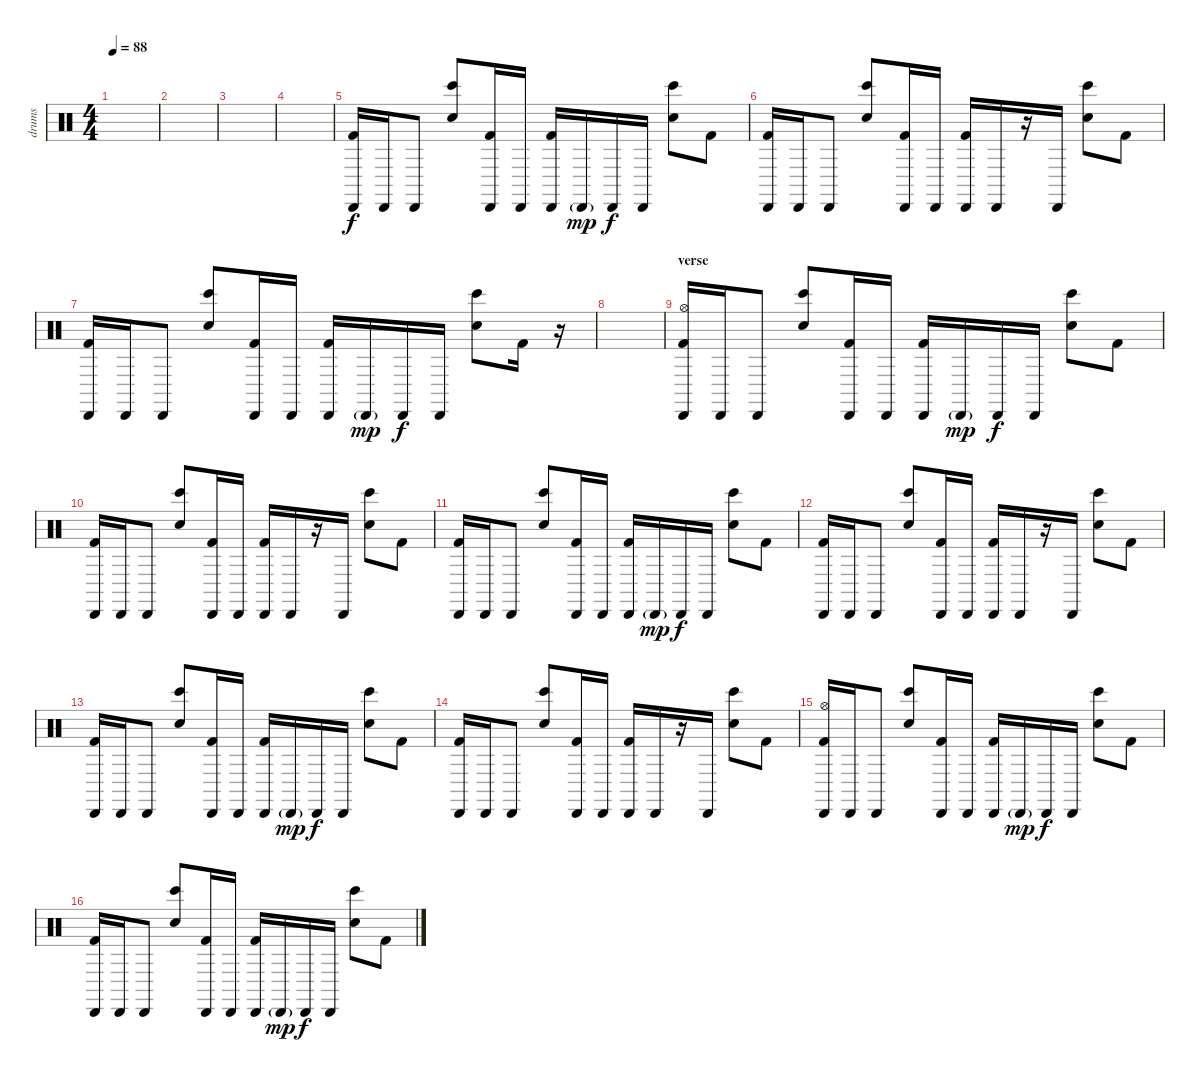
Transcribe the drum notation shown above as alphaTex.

\track ("drums" "drums") {instrument percussion}
\staff {score}
\articulation defaults
\ts (4 4)
\tempo 88
\clef neutral
\ks c
|
|
|
|
("Cabasa (hit)" "Kick (hit) 2").16 "Cabasa (hit)".16 "Cabasa (hit)".8 ("Hand Clap (hit)" "Bongo High (hit)").8 ("Cabasa (hit)" "Kick (hit) 2").16 "Cabasa (hit)".16 ("Cabasa (hit)" "Kick (hit) 2").16 "Cabasa (hit)"{g}.16{dy mp} "Cabasa (hit)".16{dy f} "Cabasa (hit)".16 ("Hand Clap (hit)" "Bongo High (hit)").8 "Kick (hit) 2".8 |
("Cabasa (hit)" "Kick (hit) 2").16 "Cabasa (hit)".16 "Cabasa (hit)".8 ("Bongo High (hit)" "Hand Clap (hit)").8 ("Cabasa (hit)" "Kick (hit) 2").16 "Cabasa (hit)".16 ("Cabasa (hit)" "Kick (hit) 2").16 "Cabasa (hit)".16 r.16 "Cabasa (hit)".16 ("Bongo High (hit)" "Hand Clap (hit)").8 "Kick (hit) 2".8 |
("Cabasa (hit)" "Kick (hit) 2").16 "Cabasa (hit)".16 "Cabasa (hit)".8 ("Bongo High (hit)" "Hand Clap (hit)").8 ("Cabasa (hit)" "Kick (hit) 2").16 "Cabasa (hit)".16 ("Cabasa (hit)" "Kick (hit) 2").16 "Cabasa (hit)"{g}.16{dy mp} "Cabasa (hit)".16{dy f} "Cabasa (hit)".16 ("Bongo High (hit)" "Hand Clap (hit)").8 "Kick (hit) 2".16 r.16 |
|
\section ("" "verse")
("Cabasa (hit)" "Kick (hit) 2" "Hi-Hat (open)").16 "Cabasa (hit)".16 "Cabasa (hit)".8 ("Hand Clap (hit)" "Bongo High (hit)").8 ("Cabasa (hit)" "Kick (hit) 2").16 "Cabasa (hit)".16 ("Cabasa (hit)" "Kick (hit) 2").16 "Cabasa (hit)"{g}.16{dy mp} "Cabasa (hit)".16{dy f} "Cabasa (hit)".16 ("Hand Clap (hit)" "Bongo High (hit)").8 "Kick (hit) 2".8 |
("Cabasa (hit)" "Kick (hit) 2").16 "Cabasa (hit)".16 "Cabasa (hit)".8 ("Bongo High (hit)" "Hand Clap (hit)").8 ("Cabasa (hit)" "Kick (hit) 2").16 "Cabasa (hit)".16 ("Cabasa (hit)" "Kick (hit) 2").16 "Cabasa (hit)".16 r.16 "Cabasa (hit)".16 ("Bongo High (hit)" "Hand Clap (hit)").8 "Kick (hit) 2".8 |
("Cabasa (hit)" "Kick (hit) 2").16 "Cabasa (hit)".16 "Cabasa (hit)".8 ("Hand Clap (hit)" "Bongo High (hit)").8 ("Cabasa (hit)" "Kick (hit) 2").16 "Cabasa (hit)".16 ("Cabasa (hit)" "Kick (hit) 2").16 "Cabasa (hit)"{g}.16{dy mp} "Cabasa (hit)".16{dy f} "Cabasa (hit)".16 ("Hand Clap (hit)" "Bongo High (hit)").8 "Kick (hit) 2".8 |
("Cabasa (hit)" "Kick (hit) 2").16 "Cabasa (hit)".16 "Cabasa (hit)".8 ("Bongo High (hit)" "Hand Clap (hit)").8 ("Cabasa (hit)" "Kick (hit) 2").16 "Cabasa (hit)".16 ("Cabasa (hit)" "Kick (hit) 2").16 "Cabasa (hit)".16 r.16 "Cabasa (hit)".16 ("Bongo High (hit)" "Hand Clap (hit)").8 "Kick (hit) 2".8 |
("Cabasa (hit)" "Kick (hit) 2").16 "Cabasa (hit)".16 "Cabasa (hit)".8 ("Hand Clap (hit)" "Bongo High (hit)").8 ("Cabasa (hit)" "Kick (hit) 2").16 "Cabasa (hit)".16 ("Cabasa (hit)" "Kick (hit) 2").16 "Cabasa (hit)"{g}.16{dy mp} "Cabasa (hit)".16{dy f} "Cabasa (hit)".16 ("Hand Clap (hit)" "Bongo High (hit)").8 "Kick (hit) 2".8 |
("Cabasa (hit)" "Kick (hit) 2").16 "Cabasa (hit)".16 "Cabasa (hit)".8 ("Bongo High (hit)" "Hand Clap (hit)").8 ("Cabasa (hit)" "Kick (hit) 2").16 "Cabasa (hit)".16 ("Cabasa (hit)" "Kick (hit) 2").16 "Cabasa (hit)".16 r.16 "Cabasa (hit)".16 ("Bongo High (hit)" "Hand Clap (hit)").8 "Kick (hit) 2".8 |
("Cabasa (hit)" "Kick (hit) 2" "Hi-Hat (open)").16 "Cabasa (hit)".16 "Cabasa (hit)".8 ("Hand Clap (hit)" "Bongo High (hit)").8 ("Cabasa (hit)" "Kick (hit) 2").16 "Cabasa (hit)".16 ("Cabasa (hit)" "Kick (hit) 2").16 "Cabasa (hit)"{g}.16{dy mp} "Cabasa (hit)".16{dy f} "Cabasa (hit)".16 ("Hand Clap (hit)" "Bongo High (hit)").8 "Kick (hit) 2".8 |
("Cabasa (hit)" "Kick (hit) 2").16 "Cabasa (hit)".16 "Cabasa (hit)".8 ("Hand Clap (hit)" "Bongo High (hit)").8 ("Cabasa (hit)" "Kick (hit) 2").16 "Cabasa (hit)".16 ("Cabasa (hit)" "Kick (hit) 2").16 "Cabasa (hit)"{g}.16{dy mp} "Cabasa (hit)".16{dy f} "Cabasa (hit)".16 ("Hand Clap (hit)" "Bongo High (hit)").8 "Kick (hit) 2".8
